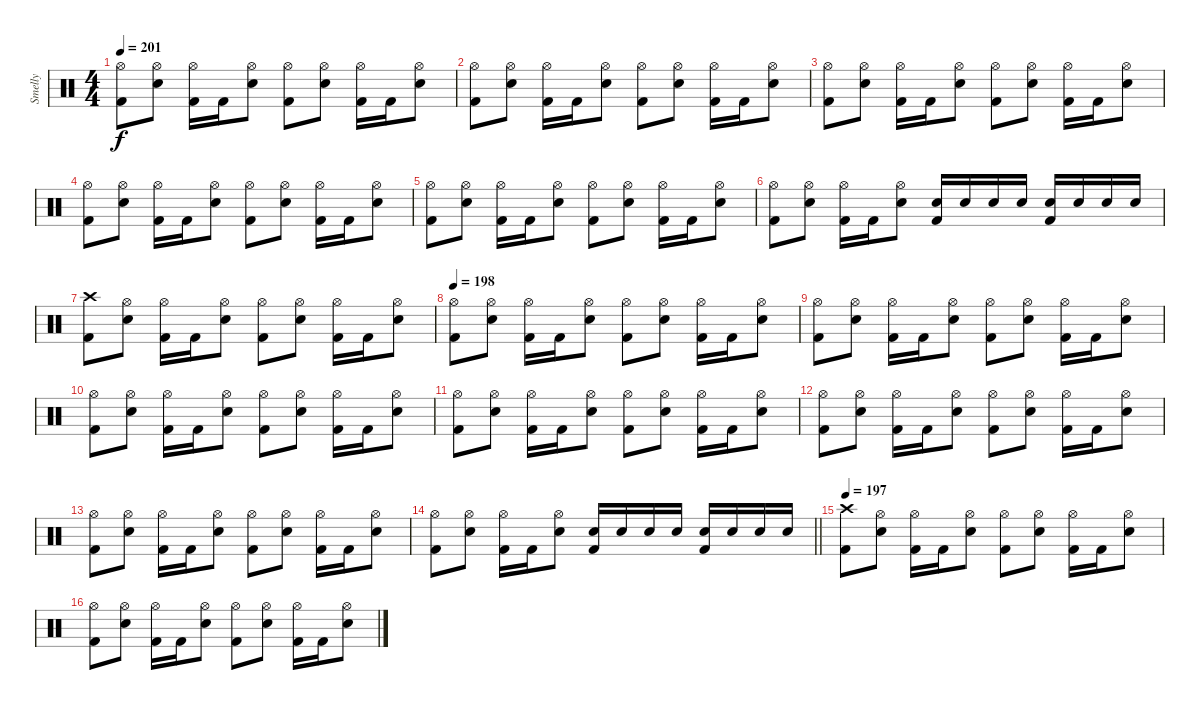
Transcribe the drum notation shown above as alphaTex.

\track ("Smelly" "Smelly") {instrument percussion}
\staff {score}
\articulation defaults
\ts (4 4)
\tempo 201
\clef neutral
\ks c
("Hi-Hat (open)" "Kick (hit) 2").8{dy f} ("Hi-Hat (open)" "Electric Snare (hit)").8 ("Hi-Hat (open)" "Kick (hit) 2").16 "Kick (hit) 2".16 ("Hi-Hat (open)" "Electric Snare (hit)").8 ("Hi-Hat (open)" "Kick (hit) 2").8 ("Hi-Hat (open)" "Electric Snare (hit)").8 ("Hi-Hat (open)" "Kick (hit) 2").16 "Kick (hit) 2".16 ("Hi-Hat (open)" "Electric Snare (hit)").8 |
("Hi-Hat (open)" "Kick (hit) 2").8 ("Hi-Hat (open)" "Electric Snare (hit)").8 ("Hi-Hat (open)" "Kick (hit) 2").16 "Kick (hit) 2".16 ("Hi-Hat (open)" "Electric Snare (hit)").8 ("Hi-Hat (open)" "Kick (hit) 2").8 ("Hi-Hat (open)" "Electric Snare (hit)").8 ("Hi-Hat (open)" "Kick (hit) 2").16 "Kick (hit) 2".16 ("Hi-Hat (open)" "Electric Snare (hit)").8 |
("Hi-Hat (open)" "Kick (hit) 2").8 ("Hi-Hat (open)" "Electric Snare (hit)").8 ("Hi-Hat (open)" "Kick (hit) 2").16 "Kick (hit) 2".16 ("Hi-Hat (open)" "Electric Snare (hit)").8 ("Hi-Hat (open)" "Kick (hit) 2").8 ("Hi-Hat (open)" "Electric Snare (hit)").8 ("Hi-Hat (open)" "Kick (hit) 2").16 "Kick (hit) 2".16 ("Hi-Hat (open)" "Electric Snare (hit)").8 |
("Hi-Hat (open)" "Kick (hit) 2").8 ("Hi-Hat (open)" "Electric Snare (hit)").8 ("Hi-Hat (open)" "Kick (hit) 2").16 "Kick (hit) 2".16 ("Hi-Hat (open)" "Electric Snare (hit)").8 ("Hi-Hat (open)" "Kick (hit) 2").8 ("Hi-Hat (open)" "Electric Snare (hit)").8 ("Hi-Hat (open)" "Kick (hit) 2").16 "Kick (hit) 2".16 ("Hi-Hat (open)" "Electric Snare (hit)").8 |
("Hi-Hat (open)" "Kick (hit) 2").8 ("Hi-Hat (open)" "Electric Snare (hit)").8 ("Hi-Hat (open)" "Kick (hit) 2").16 "Kick (hit) 2".16 ("Hi-Hat (open)" "Electric Snare (hit)").8 ("Hi-Hat (open)" "Kick (hit) 2").8 ("Hi-Hat (open)" "Electric Snare (hit)").8 ("Hi-Hat (open)" "Kick (hit) 2").16 "Kick (hit) 2".16 ("Hi-Hat (open)" "Electric Snare (hit)").8 |
("Hi-Hat (open)" "Kick (hit) 2").8 ("Hi-Hat (open)" "Electric Snare (hit)").8 ("Hi-Hat (open)" "Kick (hit) 2").16 "Kick (hit) 2".16 ("Hi-Hat (open)" "Electric Snare (hit)").8 ("Electric Snare (hit)" "Kick (hit) 2").16 "Electric Snare (hit)".16 "Electric Snare (hit)".16 "Electric Snare (hit)".16 ("Electric Snare (hit)" "Kick (hit) 2").16 "Electric Snare (hit)".16 "Electric Snare (hit)".16 "Electric Snare (hit)".16 |
("Crash high (hit)" "Kick (hit) 2").8 ("Hi-Hat (open)" "Electric Snare (hit)").8 ("Hi-Hat (open)" "Kick (hit) 2").16 "Kick (hit) 2".16 ("Hi-Hat (open)" "Electric Snare (hit)").8 ("Hi-Hat (open)" "Kick (hit) 2").8 ("Hi-Hat (open)" "Electric Snare (hit)").8 ("Hi-Hat (open)" "Kick (hit) 2").16 "Kick (hit) 2".16 ("Hi-Hat (open)" "Electric Snare (hit)").8 |
\tempo 198
("Hi-Hat (open)" "Kick (hit) 2").8 ("Hi-Hat (open)" "Electric Snare (hit)").8 ("Hi-Hat (open)" "Kick (hit) 2").16 "Kick (hit) 2".16 ("Hi-Hat (open)" "Electric Snare (hit)").8 ("Hi-Hat (open)" "Kick (hit) 2").8 ("Hi-Hat (open)" "Electric Snare (hit)").8 ("Hi-Hat (open)" "Kick (hit) 2").16 "Kick (hit) 2".16 ("Hi-Hat (open)" "Electric Snare (hit)").8 |
("Hi-Hat (open)" "Kick (hit) 2").8 ("Hi-Hat (open)" "Electric Snare (hit)").8 ("Hi-Hat (open)" "Kick (hit) 2").16 "Kick (hit) 2".16 ("Hi-Hat (open)" "Electric Snare (hit)").8 ("Hi-Hat (open)" "Kick (hit) 2").8 ("Hi-Hat (open)" "Electric Snare (hit)").8 ("Hi-Hat (open)" "Kick (hit) 2").16 "Kick (hit) 2".16 ("Hi-Hat (open)" "Electric Snare (hit)").8 |
("Hi-Hat (open)" "Kick (hit) 2").8 ("Hi-Hat (open)" "Electric Snare (hit)").8 ("Hi-Hat (open)" "Kick (hit) 2").16 "Kick (hit) 2".16 ("Hi-Hat (open)" "Electric Snare (hit)").8 ("Hi-Hat (open)" "Kick (hit) 2").8 ("Hi-Hat (open)" "Electric Snare (hit)").8 ("Hi-Hat (open)" "Kick (hit) 2").16 "Kick (hit) 2".16 ("Hi-Hat (open)" "Electric Snare (hit)").8 |
("Hi-Hat (open)" "Kick (hit) 2").8 ("Hi-Hat (open)" "Electric Snare (hit)").8 ("Hi-Hat (open)" "Kick (hit) 2").16 "Kick (hit) 2".16 ("Hi-Hat (open)" "Electric Snare (hit)").8 ("Hi-Hat (open)" "Kick (hit) 2").8 ("Hi-Hat (open)" "Electric Snare (hit)").8 ("Hi-Hat (open)" "Kick (hit) 2").16 "Kick (hit) 2".16 ("Hi-Hat (open)" "Electric Snare (hit)").8 |
("Hi-Hat (open)" "Kick (hit) 2").8 ("Hi-Hat (open)" "Electric Snare (hit)").8 ("Hi-Hat (open)" "Kick (hit) 2").16 "Kick (hit) 2".16 ("Hi-Hat (open)" "Electric Snare (hit)").8 ("Hi-Hat (open)" "Kick (hit) 2").8 ("Hi-Hat (open)" "Electric Snare (hit)").8 ("Hi-Hat (open)" "Kick (hit) 2").16 "Kick (hit) 2".16 ("Hi-Hat (open)" "Electric Snare (hit)").8 |
("Hi-Hat (open)" "Kick (hit) 2").8 ("Hi-Hat (open)" "Electric Snare (hit)").8 ("Hi-Hat (open)" "Kick (hit) 2").16 "Kick (hit) 2".16 ("Hi-Hat (open)" "Electric Snare (hit)").8 ("Hi-Hat (open)" "Kick (hit) 2").8 ("Hi-Hat (open)" "Electric Snare (hit)").8 ("Hi-Hat (open)" "Kick (hit) 2").16 "Kick (hit) 2".16 ("Hi-Hat (open)" "Electric Snare (hit)").8 |
\barLineRight lightlight
("Hi-Hat (open)" "Kick (hit) 2").8 ("Hi-Hat (open)" "Electric Snare (hit)").8 ("Hi-Hat (open)" "Kick (hit) 2").16 "Kick (hit) 2".16 ("Hi-Hat (open)" "Electric Snare (hit)").8 ("Electric Snare (hit)" "Kick (hit) 2").16 "Electric Snare (hit)".16 "Electric Snare (hit)".16 "Electric Snare (hit)".16 ("Electric Snare (hit)" "Kick (hit) 2").16 "Electric Snare (hit)".16 "Electric Snare (hit)".16 "Electric Snare (hit)".16 |
\section ("" "")
\tempo 197
("Crash high (hit)" "Kick (hit) 2").8 ("Hi-Hat (open)" "Electric Snare (hit)").8 ("Hi-Hat (open)" "Kick (hit) 2").16 "Kick (hit) 2".16 ("Hi-Hat (open)" "Electric Snare (hit)").8 ("Hi-Hat (open)" "Kick (hit) 2").8 ("Hi-Hat (open)" "Electric Snare (hit)").8 ("Hi-Hat (open)" "Kick (hit) 2").16 "Kick (hit) 2".16 ("Hi-Hat (open)" "Electric Snare (hit)").8 |
("Hi-Hat (open)" "Kick (hit) 2").8 ("Hi-Hat (open)" "Electric Snare (hit)").8 ("Hi-Hat (open)" "Kick (hit) 2").16 "Kick (hit) 2".16 ("Hi-Hat (open)" "Electric Snare (hit)").8 ("Hi-Hat (open)" "Kick (hit) 2").8 ("Hi-Hat (open)" "Electric Snare (hit)").8 ("Hi-Hat (open)" "Kick (hit) 2").16 "Kick (hit) 2".16 ("Hi-Hat (open)" "Electric Snare (hit)").8
